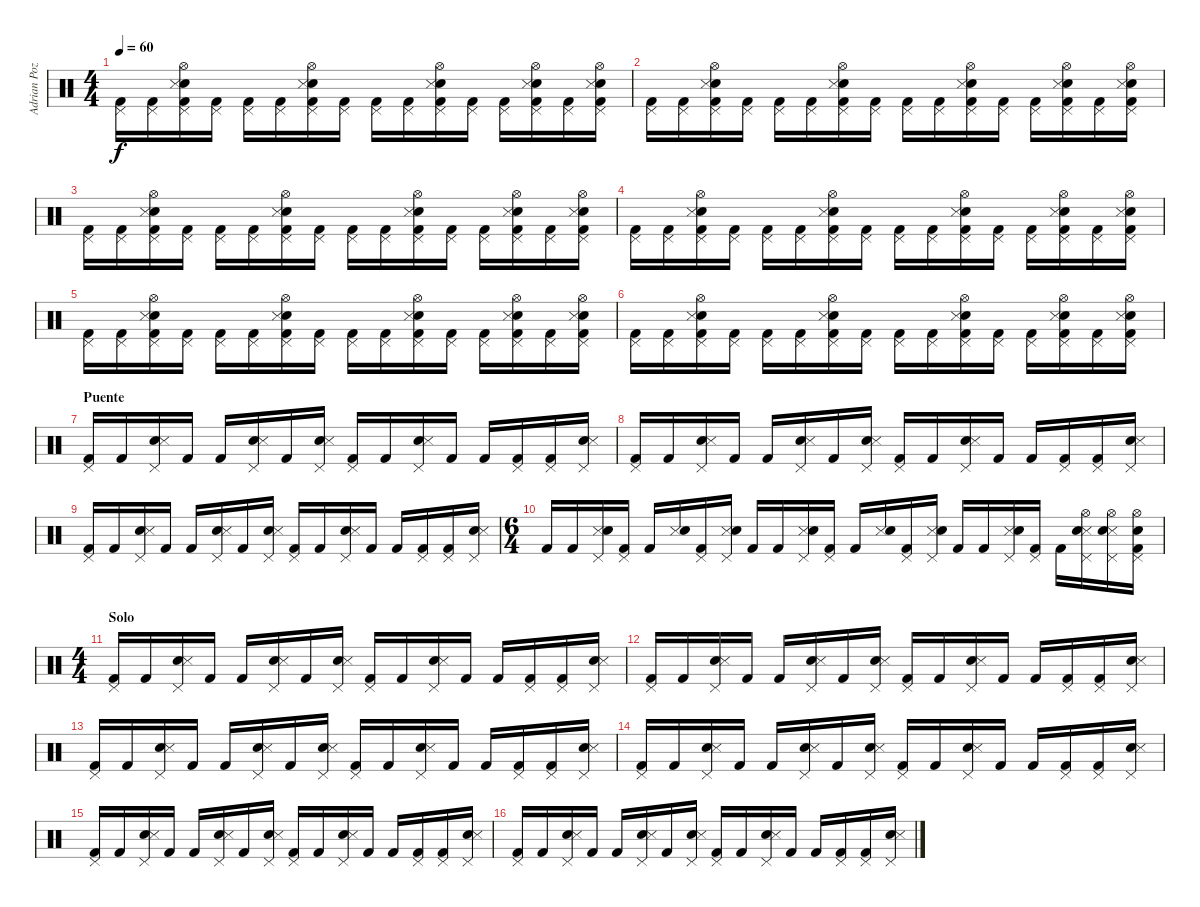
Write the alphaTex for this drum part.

\track ("Adrian Pozo" "Adrian Poz") {instrument percussion}
\staff {score}
\articulation defaults
\ts (4 4)
\tempo 60
\clef neutral
\ks c
("Kick (hit) 2" "Pedal Hi-Hat (hit)").16{dy f} ("Kick (hit) 2" "Pedal Hi-Hat (hit)").16 ("Snare (hit) 2" "Kick (hit) 2" "Snare (side stick) 3" "Hi-Hat (open)" "Pedal Hi-Hat (hit)").16 ("Kick (hit) 2" "Pedal Hi-Hat (hit)").16 ("Kick (hit) 2" "Pedal Hi-Hat (hit)").16 ("Kick (hit) 2" "Pedal Hi-Hat (hit)").16 ("Snare (hit) 2" "Kick (hit) 2" "Snare (side stick) 3" "Hi-Hat (open)" "Pedal Hi-Hat (hit)").16 ("Kick (hit) 2" "Pedal Hi-Hat (hit)").16 ("Kick (hit) 2" "Pedal Hi-Hat (hit)").16 ("Kick (hit) 2" "Pedal Hi-Hat (hit)").16 ("Snare (hit) 2" "Kick (hit) 2" "Snare (side stick) 3" "Hi-Hat (open)" "Pedal Hi-Hat (hit)").16 ("Kick (hit) 2" "Pedal Hi-Hat (hit)").16 ("Kick (hit) 2" "Pedal Hi-Hat (hit)").16 ("Snare (hit) 2" "Kick (hit) 2" "Snare (side stick) 3" "Hi-Hat (open)" "Pedal Hi-Hat (hit)").16 ("Kick (hit) 2" "Pedal Hi-Hat (hit)").16 ("Snare (hit) 2" "Kick (hit) 2" "Snare (side stick) 3" "Hi-Hat (open)" "Pedal Hi-Hat (hit)").16 |
("Kick (hit) 2" "Pedal Hi-Hat (hit)").16 ("Kick (hit) 2" "Pedal Hi-Hat (hit)").16 ("Snare (hit) 2" "Kick (hit) 2" "Snare (side stick) 3" "Hi-Hat (open)" "Pedal Hi-Hat (hit)").16 ("Kick (hit) 2" "Pedal Hi-Hat (hit)").16 ("Kick (hit) 2" "Pedal Hi-Hat (hit)").16 ("Kick (hit) 2" "Pedal Hi-Hat (hit)").16 ("Snare (hit) 2" "Kick (hit) 2" "Snare (side stick) 3" "Hi-Hat (open)" "Pedal Hi-Hat (hit)").16 ("Kick (hit) 2" "Pedal Hi-Hat (hit)").16 ("Kick (hit) 2" "Pedal Hi-Hat (hit)").16 ("Kick (hit) 2" "Pedal Hi-Hat (hit)").16 ("Snare (hit) 2" "Kick (hit) 2" "Snare (side stick) 3" "Hi-Hat (open)" "Pedal Hi-Hat (hit)").16 ("Kick (hit) 2" "Pedal Hi-Hat (hit)").16 ("Kick (hit) 2" "Pedal Hi-Hat (hit)").16 ("Snare (hit) 2" "Kick (hit) 2" "Snare (side stick) 3" "Hi-Hat (open)" "Pedal Hi-Hat (hit)").16 ("Kick (hit) 2" "Pedal Hi-Hat (hit)").16 ("Snare (hit) 2" "Kick (hit) 2" "Snare (side stick) 3" "Hi-Hat (open)" "Pedal Hi-Hat (hit)").16 |
("Kick (hit) 2" "Pedal Hi-Hat (hit)").16 ("Kick (hit) 2" "Pedal Hi-Hat (hit)").16 ("Snare (hit) 2" "Kick (hit) 2" "Snare (side stick) 3" "Hi-Hat (open)" "Pedal Hi-Hat (hit)").16 ("Kick (hit) 2" "Pedal Hi-Hat (hit)").16 ("Kick (hit) 2" "Pedal Hi-Hat (hit)").16 ("Kick (hit) 2" "Pedal Hi-Hat (hit)").16 ("Snare (hit) 2" "Kick (hit) 2" "Snare (side stick) 3" "Hi-Hat (open)" "Pedal Hi-Hat (hit)").16 ("Kick (hit) 2" "Pedal Hi-Hat (hit)").16 ("Kick (hit) 2" "Pedal Hi-Hat (hit)").16 ("Kick (hit) 2" "Pedal Hi-Hat (hit)").16 ("Snare (hit) 2" "Kick (hit) 2" "Snare (side stick) 3" "Hi-Hat (open)" "Pedal Hi-Hat (hit)").16 ("Kick (hit) 2" "Pedal Hi-Hat (hit)").16 ("Kick (hit) 2" "Pedal Hi-Hat (hit)").16 ("Snare (hit) 2" "Kick (hit) 2" "Snare (side stick) 3" "Hi-Hat (open)" "Pedal Hi-Hat (hit)").16 ("Kick (hit) 2" "Pedal Hi-Hat (hit)").16 ("Snare (hit) 2" "Kick (hit) 2" "Snare (side stick) 3" "Hi-Hat (open)" "Pedal Hi-Hat (hit)").16 |
("Kick (hit) 2" "Pedal Hi-Hat (hit)").16 ("Kick (hit) 2" "Pedal Hi-Hat (hit)").16 ("Snare (hit) 2" "Kick (hit) 2" "Snare (side stick) 3" "Hi-Hat (open)" "Pedal Hi-Hat (hit)").16 ("Kick (hit) 2" "Pedal Hi-Hat (hit)").16 ("Kick (hit) 2" "Pedal Hi-Hat (hit)").16 ("Kick (hit) 2" "Pedal Hi-Hat (hit)").16 ("Snare (hit) 2" "Kick (hit) 2" "Snare (side stick) 3" "Hi-Hat (open)" "Pedal Hi-Hat (hit)").16 ("Kick (hit) 2" "Pedal Hi-Hat (hit)").16 ("Kick (hit) 2" "Pedal Hi-Hat (hit)").16 ("Kick (hit) 2" "Pedal Hi-Hat (hit)").16 ("Snare (hit) 2" "Kick (hit) 2" "Snare (side stick) 3" "Hi-Hat (open)" "Pedal Hi-Hat (hit)").16 ("Kick (hit) 2" "Pedal Hi-Hat (hit)").16 ("Kick (hit) 2" "Pedal Hi-Hat (hit)").16 ("Snare (hit) 2" "Kick (hit) 2" "Snare (side stick) 3" "Hi-Hat (open)" "Pedal Hi-Hat (hit)").16 ("Kick (hit) 2" "Pedal Hi-Hat (hit)").16 ("Snare (hit) 2" "Kick (hit) 2" "Snare (side stick) 3" "Hi-Hat (open)" "Pedal Hi-Hat (hit)").16 |
("Kick (hit) 2" "Pedal Hi-Hat (hit)").16 ("Kick (hit) 2" "Pedal Hi-Hat (hit)").16 ("Snare (hit) 2" "Kick (hit) 2" "Snare (side stick) 3" "Hi-Hat (open)" "Pedal Hi-Hat (hit)").16 ("Kick (hit) 2" "Pedal Hi-Hat (hit)").16 ("Kick (hit) 2" "Pedal Hi-Hat (hit)").16 ("Kick (hit) 2" "Pedal Hi-Hat (hit)").16 ("Snare (hit) 2" "Kick (hit) 2" "Snare (side stick) 3" "Hi-Hat (open)" "Pedal Hi-Hat (hit)").16 ("Kick (hit) 2" "Pedal Hi-Hat (hit)").16 ("Kick (hit) 2" "Pedal Hi-Hat (hit)").16 ("Kick (hit) 2" "Pedal Hi-Hat (hit)").16 ("Snare (hit) 2" "Kick (hit) 2" "Snare (side stick) 3" "Hi-Hat (open)" "Pedal Hi-Hat (hit)").16 ("Kick (hit) 2" "Pedal Hi-Hat (hit)").16 ("Kick (hit) 2" "Pedal Hi-Hat (hit)").16 ("Snare (hit) 2" "Kick (hit) 2" "Snare (side stick) 3" "Hi-Hat (open)" "Pedal Hi-Hat (hit)").16 ("Kick (hit) 2" "Pedal Hi-Hat (hit)").16 ("Snare (hit) 2" "Kick (hit) 2" "Snare (side stick) 3" "Hi-Hat (open)" "Pedal Hi-Hat (hit)").16 |
("Kick (hit) 2" "Pedal Hi-Hat (hit)").16 ("Kick (hit) 2" "Pedal Hi-Hat (hit)").16 ("Snare (hit) 2" "Kick (hit) 2" "Snare (side stick) 3" "Hi-Hat (open)" "Pedal Hi-Hat (hit)").16 ("Kick (hit) 2" "Pedal Hi-Hat (hit)").16 ("Kick (hit) 2" "Pedal Hi-Hat (hit)").16 ("Kick (hit) 2" "Pedal Hi-Hat (hit)").16 ("Snare (hit) 2" "Kick (hit) 2" "Snare (side stick) 3" "Hi-Hat (open)" "Pedal Hi-Hat (hit)").16 ("Kick (hit) 2" "Pedal Hi-Hat (hit)").16 ("Kick (hit) 2" "Pedal Hi-Hat (hit)").16 ("Kick (hit) 2" "Pedal Hi-Hat (hit)").16 ("Snare (hit) 2" "Kick (hit) 2" "Snare (side stick) 3" "Hi-Hat (open)" "Pedal Hi-Hat (hit)").16 ("Kick (hit) 2" "Pedal Hi-Hat (hit)").16 ("Kick (hit) 2" "Pedal Hi-Hat (hit)").16 ("Snare (hit) 2" "Kick (hit) 2" "Snare (side stick) 3" "Hi-Hat (open)" "Pedal Hi-Hat (hit)").16 ("Kick (hit) 2" "Pedal Hi-Hat (hit)").16 ("Snare (hit) 2" "Kick (hit) 2" "Snare (side stick) 3" "Hi-Hat (open)" "Pedal Hi-Hat (hit)").16 |
\section ("" "Puente")
("Kick (hit) 2" "Pedal Hi-Hat (hit)").16 "Kick (hit) 2".16 ("Snare (hit) 2" "Snare (side stick) 3" "Pedal Hi-Hat (hit)").16 "Kick (hit) 2".16 "Kick (hit) 2".16 ("Snare (hit) 2" "Snare (side stick) 3" "Pedal Hi-Hat (hit)").16 "Kick (hit) 2".16 ("Snare (hit) 2" "Snare (side stick) 3" "Pedal Hi-Hat (hit)").16 ("Kick (hit) 2" "Pedal Hi-Hat (hit)").16 "Kick (hit) 2".16 ("Snare (hit) 2" "Snare (side stick) 3" "Pedal Hi-Hat (hit)").16 "Kick (hit) 2".16 "Kick (hit) 2".16 ("Kick (hit) 2" "Pedal Hi-Hat (hit)").16 ("Kick (hit) 2" "Pedal Hi-Hat (hit)").16 ("Snare (hit) 2" "Snare (side stick) 3" "Pedal Hi-Hat (hit)").16 |
("Kick (hit) 2" "Pedal Hi-Hat (hit)").16 "Kick (hit) 2".16 ("Snare (hit) 2" "Snare (side stick) 3" "Pedal Hi-Hat (hit)").16 "Kick (hit) 2".16 "Kick (hit) 2".16 ("Snare (hit) 2" "Snare (side stick) 3" "Pedal Hi-Hat (hit)").16 "Kick (hit) 2".16 ("Snare (hit) 2" "Snare (side stick) 3" "Pedal Hi-Hat (hit)").16 ("Kick (hit) 2" "Pedal Hi-Hat (hit)").16 "Kick (hit) 2".16 ("Snare (hit) 2" "Snare (side stick) 3" "Pedal Hi-Hat (hit)").16 "Kick (hit) 2".16 "Kick (hit) 2".16 ("Kick (hit) 2" "Pedal Hi-Hat (hit)").16 ("Kick (hit) 2" "Pedal Hi-Hat (hit)").16 ("Snare (hit) 2" "Snare (side stick) 3" "Pedal Hi-Hat (hit)").16 |
("Kick (hit) 2" "Pedal Hi-Hat (hit)").16 "Kick (hit) 2".16 ("Snare (hit) 2" "Snare (side stick) 3" "Pedal Hi-Hat (hit)").16 "Kick (hit) 2".16 "Kick (hit) 2".16 ("Snare (hit) 2" "Snare (side stick) 3" "Pedal Hi-Hat (hit)").16 "Kick (hit) 2".16 ("Snare (hit) 2" "Snare (side stick) 3" "Pedal Hi-Hat (hit)").16 ("Kick (hit) 2" "Pedal Hi-Hat (hit)").16 "Kick (hit) 2".16 ("Snare (hit) 2" "Snare (side stick) 3" "Pedal Hi-Hat (hit)").16 "Kick (hit) 2".16 "Kick (hit) 2".16 ("Kick (hit) 2" "Pedal Hi-Hat (hit)").16 ("Kick (hit) 2" "Pedal Hi-Hat (hit)").16 ("Snare (hit) 2" "Snare (side stick) 3" "Pedal Hi-Hat (hit)").16 |
\ts (6 4)
"Kick (hit) 2".16 "Kick (hit) 2".16 ("Snare (side stick) 3" "Snare (hit) 2" "Pedal Hi-Hat (hit)").16 ("Kick (hit) 2" "Pedal Hi-Hat (hit)").16 "Kick (hit) 2".16 ("Snare (side stick) 3" "Snare (hit) 2").16 ("Kick (hit) 2" "Pedal Hi-Hat (hit)").16 ("Snare (side stick) 3" "Snare (hit) 2" "Pedal Hi-Hat (hit)").16 "Kick (hit) 2".16 "Kick (hit) 2".16 ("Snare (side stick) 3" "Snare (hit) 2" "Pedal Hi-Hat (hit)").16 ("Kick (hit) 2" "Pedal Hi-Hat (hit)").16 "Kick (hit) 2".16 ("Snare (side stick) 3" "Snare (hit) 2").16 ("Kick (hit) 2" "Pedal Hi-Hat (hit)").16 ("Snare (side stick) 3" "Snare (hit) 2" "Pedal Hi-Hat (hit)").16 "Kick (hit) 2".16 "Kick (hit) 2".16 ("Snare (side stick) 3" "Snare (hit) 2" "Pedal Hi-Hat (hit)").16 ("Kick (hit) 2" "Pedal Hi-Hat (hit)").16 "Kick (hit) 2".16 ("Snare (side stick) 3" "Snare (hit) 2" "Hi-Hat (open)" "Pedal Hi-Hat (hit)").16 ("Snare (side stick) 3" "Snare (hit) 2" "Hi-Hat (open)" "Pedal Hi-Hat (hit)").16 ("Kick (hit) 2" "Snare (hit) 2" "Hi-Hat (open)" "Pedal Hi-Hat (hit)").16 |
\ts (4 4)
\section ("" "Solo")
("Kick (hit) 2" "Pedal Hi-Hat (hit)").16 "Kick (hit) 2".16 ("Snare (hit) 2" "Snare (side stick) 3" "Pedal Hi-Hat (hit)").16 "Kick (hit) 2".16 "Kick (hit) 2".16 ("Snare (hit) 2" "Snare (side stick) 3" "Pedal Hi-Hat (hit)").16 "Kick (hit) 2".16 ("Snare (hit) 2" "Snare (side stick) 3" "Pedal Hi-Hat (hit)").16 ("Kick (hit) 2" "Pedal Hi-Hat (hit)").16 "Kick (hit) 2".16 ("Snare (hit) 2" "Snare (side stick) 3" "Pedal Hi-Hat (hit)").16 "Kick (hit) 2".16 "Kick (hit) 2".16 ("Kick (hit) 2" "Pedal Hi-Hat (hit)").16 ("Kick (hit) 2" "Pedal Hi-Hat (hit)").16 ("Snare (hit) 2" "Snare (side stick) 3" "Pedal Hi-Hat (hit)").16 |
("Kick (hit) 2" "Pedal Hi-Hat (hit)").16 "Kick (hit) 2".16 ("Snare (hit) 2" "Snare (side stick) 3" "Pedal Hi-Hat (hit)").16 "Kick (hit) 2".16 "Kick (hit) 2".16 ("Snare (hit) 2" "Snare (side stick) 3" "Pedal Hi-Hat (hit)").16 "Kick (hit) 2".16 ("Snare (hit) 2" "Snare (side stick) 3" "Pedal Hi-Hat (hit)").16 ("Kick (hit) 2" "Pedal Hi-Hat (hit)").16 "Kick (hit) 2".16 ("Snare (hit) 2" "Snare (side stick) 3" "Pedal Hi-Hat (hit)").16 "Kick (hit) 2".16 "Kick (hit) 2".16 ("Kick (hit) 2" "Pedal Hi-Hat (hit)").16 ("Kick (hit) 2" "Pedal Hi-Hat (hit)").16 ("Snare (hit) 2" "Snare (side stick) 3" "Pedal Hi-Hat (hit)").16 |
("Kick (hit) 2" "Pedal Hi-Hat (hit)").16 "Kick (hit) 2".16 ("Snare (hit) 2" "Snare (side stick) 3" "Pedal Hi-Hat (hit)").16 "Kick (hit) 2".16 "Kick (hit) 2".16 ("Snare (hit) 2" "Snare (side stick) 3" "Pedal Hi-Hat (hit)").16 "Kick (hit) 2".16 ("Snare (hit) 2" "Snare (side stick) 3" "Pedal Hi-Hat (hit)").16 ("Kick (hit) 2" "Pedal Hi-Hat (hit)").16 "Kick (hit) 2".16 ("Snare (hit) 2" "Snare (side stick) 3" "Pedal Hi-Hat (hit)").16 "Kick (hit) 2".16 "Kick (hit) 2".16 ("Kick (hit) 2" "Pedal Hi-Hat (hit)").16 ("Kick (hit) 2" "Pedal Hi-Hat (hit)").16 ("Snare (hit) 2" "Snare (side stick) 3" "Pedal Hi-Hat (hit)").16 |
("Kick (hit) 2" "Pedal Hi-Hat (hit)").16 "Kick (hit) 2".16 ("Snare (hit) 2" "Snare (side stick) 3" "Pedal Hi-Hat (hit)").16 "Kick (hit) 2".16 "Kick (hit) 2".16 ("Snare (hit) 2" "Snare (side stick) 3" "Pedal Hi-Hat (hit)").16 "Kick (hit) 2".16 ("Snare (hit) 2" "Snare (side stick) 3" "Pedal Hi-Hat (hit)").16 ("Kick (hit) 2" "Pedal Hi-Hat (hit)").16 "Kick (hit) 2".16 ("Snare (hit) 2" "Snare (side stick) 3" "Pedal Hi-Hat (hit)").16 "Kick (hit) 2".16 "Kick (hit) 2".16 ("Kick (hit) 2" "Pedal Hi-Hat (hit)").16 ("Kick (hit) 2" "Pedal Hi-Hat (hit)").16 ("Snare (hit) 2" "Snare (side stick) 3" "Pedal Hi-Hat (hit)").16 |
("Kick (hit) 2" "Pedal Hi-Hat (hit)").16 "Kick (hit) 2".16 ("Snare (hit) 2" "Snare (side stick) 3" "Pedal Hi-Hat (hit)").16 "Kick (hit) 2".16 "Kick (hit) 2".16 ("Snare (hit) 2" "Snare (side stick) 3" "Pedal Hi-Hat (hit)").16 "Kick (hit) 2".16 ("Snare (hit) 2" "Snare (side stick) 3" "Pedal Hi-Hat (hit)").16 ("Kick (hit) 2" "Pedal Hi-Hat (hit)").16 "Kick (hit) 2".16 ("Snare (hit) 2" "Snare (side stick) 3" "Pedal Hi-Hat (hit)").16 "Kick (hit) 2".16 "Kick (hit) 2".16 ("Kick (hit) 2" "Pedal Hi-Hat (hit)").16 ("Kick (hit) 2" "Pedal Hi-Hat (hit)").16 ("Snare (hit) 2" "Snare (side stick) 3" "Pedal Hi-Hat (hit)").16 |
("Kick (hit) 2" "Pedal Hi-Hat (hit)").16 "Kick (hit) 2".16 ("Snare (hit) 2" "Snare (side stick) 3" "Pedal Hi-Hat (hit)").16 "Kick (hit) 2".16 "Kick (hit) 2".16 ("Snare (hit) 2" "Snare (side stick) 3" "Pedal Hi-Hat (hit)").16 "Kick (hit) 2".16 ("Snare (hit) 2" "Snare (side stick) 3" "Pedal Hi-Hat (hit)").16 ("Kick (hit) 2" "Pedal Hi-Hat (hit)").16 "Kick (hit) 2".16 ("Snare (hit) 2" "Snare (side stick) 3" "Pedal Hi-Hat (hit)").16 "Kick (hit) 2".16 "Kick (hit) 2".16 ("Kick (hit) 2" "Pedal Hi-Hat (hit)").16 ("Kick (hit) 2" "Pedal Hi-Hat (hit)").16 ("Snare (hit) 2" "Snare (side stick) 3" "Pedal Hi-Hat (hit)").16
